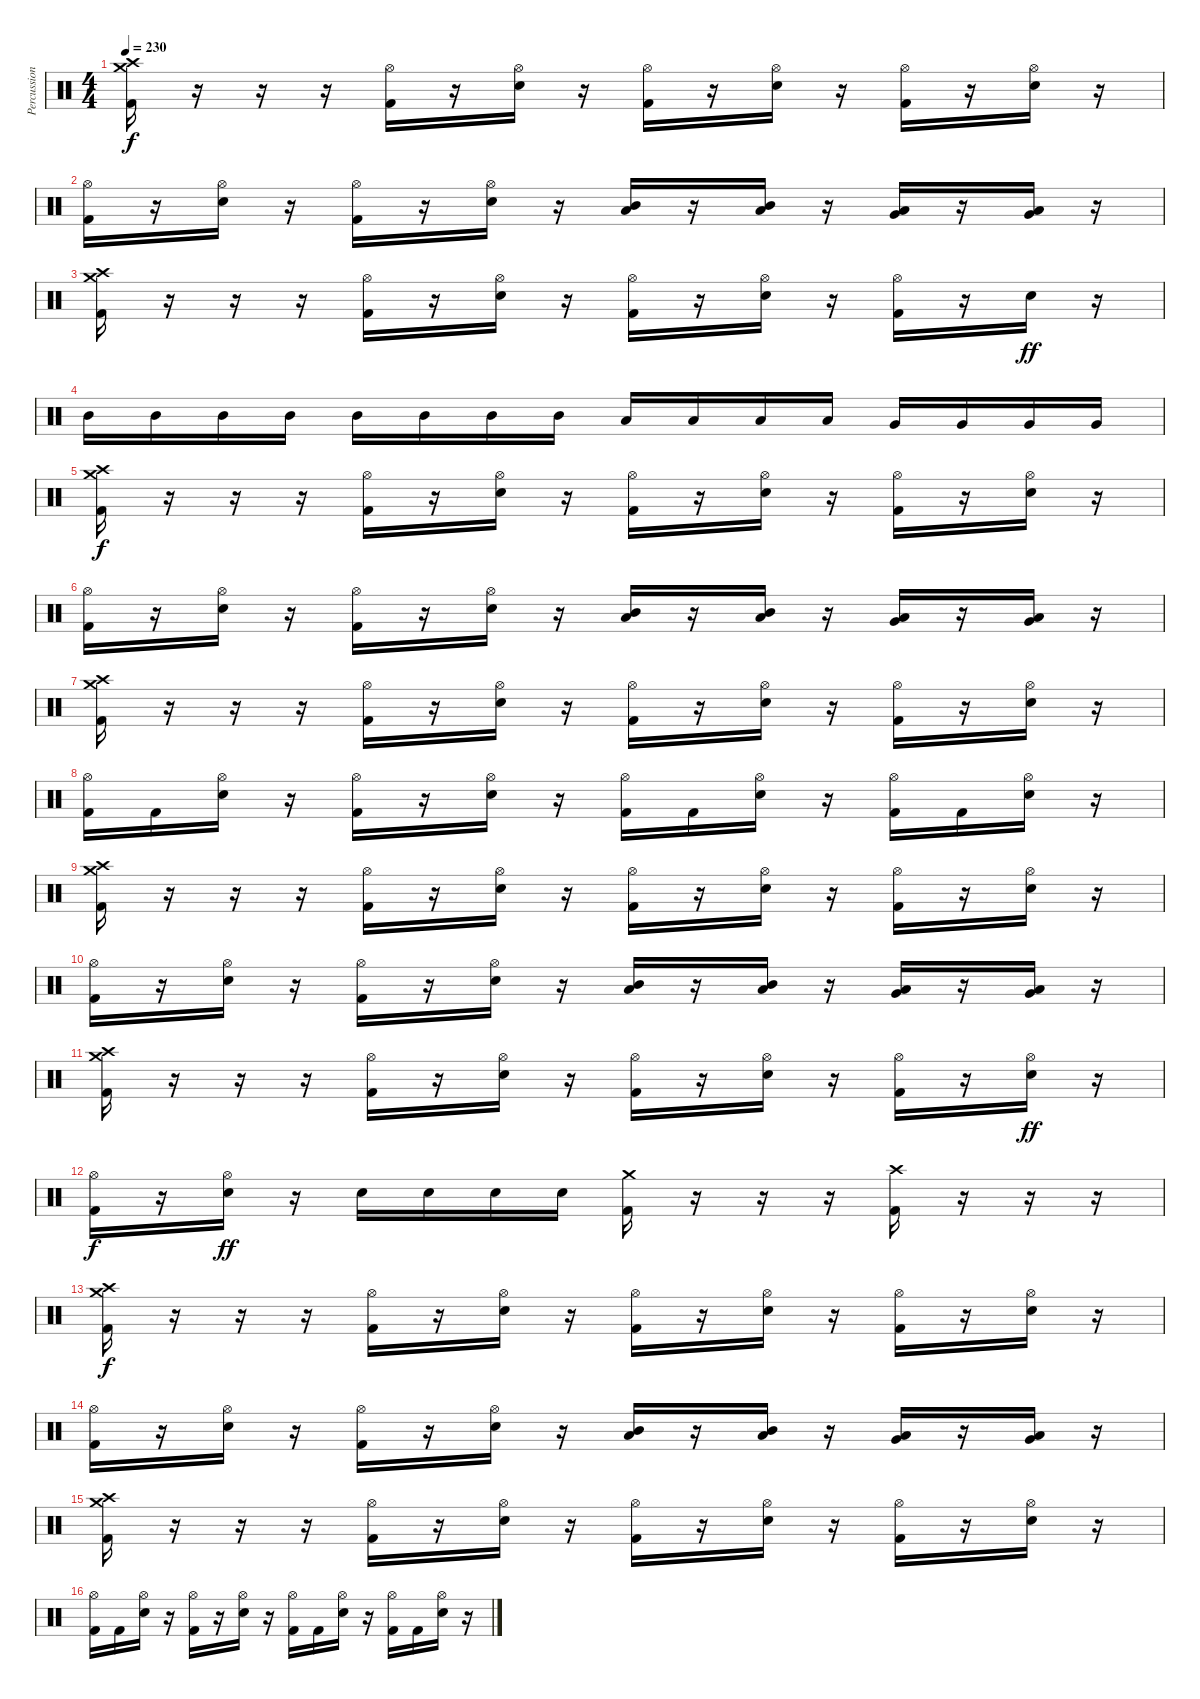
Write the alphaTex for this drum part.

\track ("Percussion" "Percussion") {instrument percussion}
\staff {score}
\articulation defaults
\ts (4 4)
\tempo 230
\clef neutral
\ks c
("Crash medium (hit)" "Crash high (hit)" "Kick (hit) 2").16{dy f} r.16 r.16 r.16 ("Hi-Hat (open)" "Kick (hit) 2").16 r.16 ("Hi-Hat (open)" "Electric Snare (hit)").16 r.16 ("Hi-Hat (open)" "Kick (hit) 2").16 r.16 ("Hi-Hat (open)" "Electric Snare (hit)").16 r.16 ("Hi-Hat (open)" "Kick (hit) 2").16 r.16 ("Hi-Hat (open)" "Electric Snare (hit)").16 r.16 |
("Hi-Hat (open)" "Kick (hit) 2").16 r.16 ("Hi-Hat (open)" "Electric Snare (hit)").16 r.16 ("Hi-Hat (open)" "Kick (hit) 2").16 r.16 ("Hi-Hat (open)" "Electric Snare (hit)").16 r.16 ("Mid Tom (hit)" "Low Tom (hit)").16 r.16 ("Mid Tom (hit)" "Low Tom (hit)").16 r.16 ("Low Tom (hit)" "Very Low Tom (hit)").16 r.16 ("Low Tom (hit)" "Very Low Tom (hit)").16 r.16 |
("Crash medium (hit)" "Crash high (hit)" "Kick (hit) 2").16 r.16 r.16 r.16 ("Hi-Hat (open)" "Kick (hit) 2").16 r.16 ("Hi-Hat (open)" "Electric Snare (hit)").16 r.16 ("Hi-Hat (open)" "Kick (hit) 2").16 r.16 ("Hi-Hat (open)" "Electric Snare (hit)").16 r.16 ("Hi-Hat (open)" "Kick (hit) 2").16 r.16 "Electric Snare (hit)".16{dy ff} r.16 |
"Mid Tom (hit)".16 "Mid Tom (hit)".16 "Mid Tom (hit)".16 "Mid Tom (hit)".16 "Mid Tom (hit)".16 "Mid Tom (hit)".16 "Mid Tom (hit)".16 "Mid Tom (hit)".16 "Low Tom (hit)".16 "Low Tom (hit)".16 "Low Tom (hit)".16 "Low Tom (hit)".16 "Very Low Tom (hit)".16 "Very Low Tom (hit)".16 "Very Low Tom (hit)".16 "Very Low Tom (hit)".16 |
("Crash medium (hit)" "Crash high (hit)" "Kick (hit) 2").16{dy f} r.16 r.16 r.16 ("Hi-Hat (open)" "Kick (hit) 2").16 r.16 ("Hi-Hat (open)" "Electric Snare (hit)").16 r.16 ("Hi-Hat (open)" "Kick (hit) 2").16 r.16 ("Hi-Hat (open)" "Electric Snare (hit)").16 r.16 ("Hi-Hat (open)" "Kick (hit) 2").16 r.16 ("Hi-Hat (open)" "Electric Snare (hit)").16 r.16 |
("Hi-Hat (open)" "Kick (hit) 2").16 r.16 ("Hi-Hat (open)" "Electric Snare (hit)").16 r.16 ("Hi-Hat (open)" "Kick (hit) 2").16 r.16 ("Hi-Hat (open)" "Electric Snare (hit)").16 r.16 ("Mid Tom (hit)" "Low Tom (hit)").16 r.16 ("Mid Tom (hit)" "Low Tom (hit)").16 r.16 ("Low Tom (hit)" "Very Low Tom (hit)").16 r.16 ("Low Tom (hit)" "Very Low Tom (hit)").16 r.16 |
("Crash medium (hit)" "Crash high (hit)" "Kick (hit) 2").16 r.16 r.16 r.16 ("Hi-Hat (open)" "Kick (hit) 2").16 r.16 ("Hi-Hat (open)" "Electric Snare (hit)").16 r.16 ("Hi-Hat (open)" "Kick (hit) 2").16 r.16 ("Hi-Hat (open)" "Electric Snare (hit)").16 r.16 ("Hi-Hat (open)" "Kick (hit) 2").16 r.16 ("Hi-Hat (open)" "Electric Snare (hit)").16 r.16 |
("Hi-Hat (open)" "Kick (hit) 2").16 "Kick (hit) 2".16 ("Hi-Hat (open)" "Electric Snare (hit)").16 r.16 ("Hi-Hat (open)" "Kick (hit) 2").16 r.16 ("Hi-Hat (open)" "Electric Snare (hit)").16 r.16 ("Hi-Hat (open)" "Kick (hit) 2").16 "Kick (hit) 2".16 ("Hi-Hat (open)" "Electric Snare (hit)").16 r.16 ("Hi-Hat (open)" "Kick (hit) 2").16 "Kick (hit) 2".16 ("Hi-Hat (open)" "Electric Snare (hit)").16 r.16 |
("Crash medium (hit)" "Crash high (hit)" "Kick (hit) 2").16 r.16 r.16 r.16 ("Hi-Hat (open)" "Kick (hit) 2").16 r.16 ("Hi-Hat (open)" "Electric Snare (hit)").16 r.16 ("Hi-Hat (open)" "Kick (hit) 2").16 r.16 ("Hi-Hat (open)" "Electric Snare (hit)").16 r.16 ("Hi-Hat (open)" "Kick (hit) 2").16 r.16 ("Hi-Hat (open)" "Electric Snare (hit)").16 r.16 |
("Hi-Hat (open)" "Kick (hit) 2").16 r.16 ("Hi-Hat (open)" "Electric Snare (hit)").16 r.16 ("Hi-Hat (open)" "Kick (hit) 2").16 r.16 ("Hi-Hat (open)" "Electric Snare (hit)").16 r.16 ("Mid Tom (hit)" "Low Tom (hit)").16 r.16 ("Mid Tom (hit)" "Low Tom (hit)").16 r.16 ("Low Tom (hit)" "Very Low Tom (hit)").16 r.16 ("Low Tom (hit)" "Very Low Tom (hit)").16 r.16 |
("Crash medium (hit)" "Crash high (hit)" "Kick (hit) 2").16 r.16 r.16 r.16 ("Hi-Hat (open)" "Kick (hit) 2").16 r.16 ("Hi-Hat (open)" "Electric Snare (hit)").16 r.16 ("Hi-Hat (open)" "Kick (hit) 2").16 r.16 ("Hi-Hat (open)" "Electric Snare (hit)").16 r.16 ("Hi-Hat (open)" "Kick (hit) 2").16 r.16 ("Hi-Hat (open)" "Electric Snare (hit)").16{dy ff} r.16 |
("Hi-Hat (open)" "Kick (hit) 2").16{dy f} r.16 ("Hi-Hat (open)" "Electric Snare (hit)").16{dy ff} r.16 "Electric Snare (hit)".16 "Electric Snare (hit)".16 "Electric Snare (hit)".16 "Electric Snare (hit)".16 ("Crash medium (hit)" "Kick (hit) 2").16 r.16 r.16 r.16 ("Crash high (hit)" "Kick (hit) 2").16 r.16 r.16 r.16 |
("Crash medium (hit)" "Crash high (hit)" "Kick (hit) 2").16{dy f} r.16 r.16 r.16 ("Hi-Hat (open)" "Kick (hit) 2").16 r.16 ("Hi-Hat (open)" "Electric Snare (hit)").16 r.16 ("Hi-Hat (open)" "Kick (hit) 2").16 r.16 ("Hi-Hat (open)" "Electric Snare (hit)").16 r.16 ("Hi-Hat (open)" "Kick (hit) 2").16 r.16 ("Hi-Hat (open)" "Electric Snare (hit)").16 r.16 |
("Hi-Hat (open)" "Kick (hit) 2").16 r.16 ("Hi-Hat (open)" "Electric Snare (hit)").16 r.16 ("Hi-Hat (open)" "Kick (hit) 2").16 r.16 ("Hi-Hat (open)" "Electric Snare (hit)").16 r.16 ("Mid Tom (hit)" "Low Tom (hit)").16 r.16 ("Mid Tom (hit)" "Low Tom (hit)").16 r.16 ("Low Tom (hit)" "Very Low Tom (hit)").16 r.16 ("Low Tom (hit)" "Very Low Tom (hit)").16 r.16 |
("Crash medium (hit)" "Crash high (hit)" "Kick (hit) 2").16 r.16 r.16 r.16 ("Hi-Hat (open)" "Kick (hit) 2").16 r.16 ("Hi-Hat (open)" "Electric Snare (hit)").16 r.16 ("Hi-Hat (open)" "Kick (hit) 2").16 r.16 ("Hi-Hat (open)" "Electric Snare (hit)").16 r.16 ("Hi-Hat (open)" "Kick (hit) 2").16 r.16 ("Hi-Hat (open)" "Electric Snare (hit)").16 r.16 |
("Hi-Hat (open)" "Kick (hit) 2").16 "Kick (hit) 2".16 ("Hi-Hat (open)" "Electric Snare (hit)").16 r.16 ("Hi-Hat (open)" "Kick (hit) 2").16 r.16 ("Hi-Hat (open)" "Electric Snare (hit)").16 r.16 ("Hi-Hat (open)" "Kick (hit) 2").16 "Kick (hit) 2".16 ("Hi-Hat (open)" "Electric Snare (hit)").16 r.16 ("Hi-Hat (open)" "Kick (hit) 2").16 "Kick (hit) 2".16 ("Hi-Hat (open)" "Electric Snare (hit)").16 r.16
